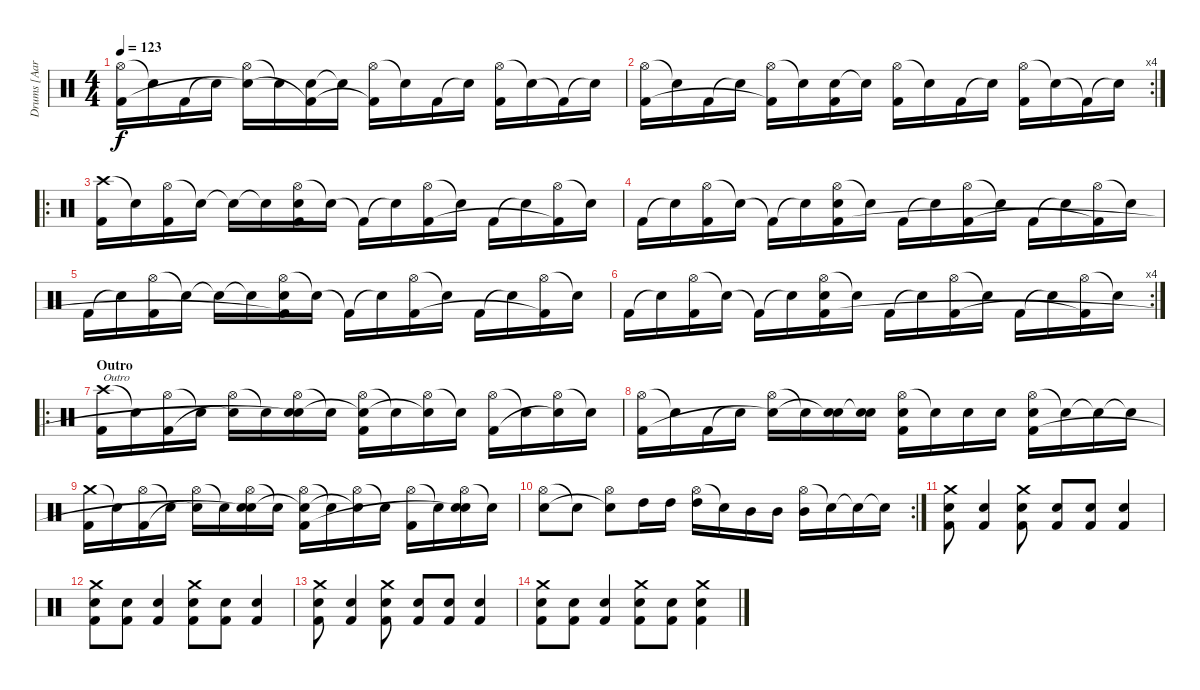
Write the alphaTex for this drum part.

\track ("Drums [Aaron Harris]" "Drums [Aar") {instrument percussion}
\staff {score}
\articulation defaults
\ts (4 4)
\tempo 123
\clef neutral
\ks c
("Hi-Hat (open)" "Kick (hit) 2").16{dy f} "Snare (hit)"{t}.16 "Kick (hit) 2".16 "Snare (hit)"{t}.16 ("Hi-Hat (open)" "Snare (hit)"{t}).16 "Snare (hit)"{t}.16 ("Electric Snare (hit)" "Kick (hit) 2"{t}).16 "Snare (hit)"{t}.16 ("Hi-Hat (open)" "Kick (hit) 2"{t}).16 "Snare (hit)"{t}.16 "Kick (hit) 2".16 "Snare (hit)"{t}.16 ("Hi-Hat (open)" "Kick (hit) 2").16 "Snare (hit)"{t}.16 "Kick (hit) 2"{t}.16 "Snare (hit)"{t}.16 |
\rc 4
("Hi-Hat (open)" "Kick (hit) 2").16 "Snare (hit)"{t}.16 "Kick (hit) 2".16 "Snare (hit)"{t}.16 ("Hi-Hat (open)" "Kick (hit) 2"{t}).16 "Snare (hit)"{t}.16 ("Electric Snare (hit)" "Kick (hit) 2").16 "Snare (hit)"{t}.16 ("Hi-Hat (open)" "Kick (hit) 2").16 "Snare (hit)"{t}.16 "Kick (hit) 2".16 "Snare (hit)"{t}.16 ("Hi-Hat (open)" "Kick (hit) 2").16 "Snare (hit)"{t}.16 "Kick (hit) 2"{t}.16 "Snare (hit)"{t}.16 |
\ro
("Crash high (hit)" "Kick (hit) 2").16 "Snare (hit)"{t}.16 ("Hi-Hat (open)" "Kick (hit) 2").16 "Snare (hit)"{t}.16 "Snare (hit)"{t}.16 "Snare (hit)"{t}.16 ("Hi-Hat (open)" "Electric Snare (hit)" "Kick (hit) 2").16 "Snare (hit)"{t}.16 "Kick (hit) 2"{t}.16 "Snare (hit)"{t}.16 ("Hi-Hat (open)" "Kick (hit) 2").16 "Snare (hit)"{t}.16 "Kick (hit) 2".16 "Snare (hit)"{t}.16 ("Hi-Hat (open)" "Kick (hit) 2"{t}).16 "Snare (hit)"{t}.16 |
"Kick (hit) 2".16 "Snare (hit)"{t}.16 ("Hi-Hat (open)" "Kick (hit) 2").16 "Snare (hit)"{t}.16 "Kick (hit) 2"{t}.16 "Snare (hit)"{t}.16 ("Hi-Hat (open)" "Electric Snare (hit)" "Kick (hit) 2").16 "Snare (hit)"{t}.16 "Kick (hit) 2".16 "Snare (hit)"{t}.16 ("Hi-Hat (open)" "Kick (hit) 2").16 "Snare (hit)"{t}.16 "Kick (hit) 2".16 "Snare (hit)"{t}.16 ("Hi-Hat (open)" "Kick (hit) 2"{t}).16 "Snare (hit)"{t}.16 |
"Kick (hit) 2".16 "Snare (hit)"{t}.16 ("Hi-Hat (open)" "Kick (hit) 2").16 "Snare (hit)"{t}.16 "Snare (hit)"{t}.16 "Snare (hit)"{t}.16 ("Hi-Hat (open)" "Electric Snare (hit)" "Kick (hit) 2"{t}).16 "Snare (hit)"{t}.16 "Kick (hit) 2"{t}.16 "Snare (hit)"{t}.16 ("Hi-Hat (open)" "Kick (hit) 2").16 "Snare (hit)"{t}.16 "Kick (hit) 2".16 "Snare (hit)"{t}.16 ("Hi-Hat (open)" "Kick (hit) 2"{t}).16 "Snare (hit)"{t}.16 |
\rc 4 "Kick (hit) 2".16 "Snare (hit)"{t}.16
("Hi-Hat (open)" "Kick (hit) 2").16 "Snare (hit)"{t}.16 "Kick (hit) 2"{t}.16 "Snare (hit)"{t}.16 ("Hi-Hat (open)" "Electric Snare (hit)" "Kick (hit) 2").16 "Snare (hit)"{t}.16 "Kick (hit) 2".16 "Snare (hit)"{t}.16 ("Hi-Hat (open)" "Kick (hit) 2").16 "Snare (hit)"{t}.16 "Kick (hit) 2".16 "Snare (hit)"{t}.16 ("Hi-Hat (open)" "Kick (hit) 2"{t}).16 "Snare (hit)"{t}.16 |
\ro
\section ("" "Outro")
("Crash high (hit)" "Kick (hit) 2").16{txt "Outro"} "Snare (hit)"{t}.16 ("Hi-Hat (open)" "Kick (hit) 2").16 "Snare (hit)"{t}.16 ("Hi-Hat (open)" "Snare (hit)"{t}).16 "Snare (hit)"{t}.16 ("Hi-Hat (open)" "Electric Snare (hit)" "Snare (hit)"{t}).16 "Snare (hit)"{t}.16 ("Hi-Hat (open)" "Electric Snare (hit)"{t} "Kick (hit) 2").16 "Snare (hit)"{t}.16 ("Hi-Hat (open)" "Snare (hit)"{t}).16 "Snare (hit)"{t}.16 ("Hi-Hat (open)" "Kick (hit) 2").16 "Snare (hit)"{t}.16 ("Hi-Hat (open)" "Snare (hit)"{t}).16 "Snare (hit)"{t}.16 |
("Hi-Hat (open)" "Kick (hit) 2").16 "Snare (hit)"{t}.16 "Kick (hit) 2".16 "Snare (hit)"{t}.16 ("Hi-Hat (open)" "Snare (hit)"{t}).16 "Snare (hit)"{t}.16 ("Electric Snare (hit)" "Snare (hit)"{t}).16 ("Electric Snare (hit)" "Snare (hit)"{t}).16 ("Hi-Hat (open)" "Electric Snare (hit)" "Kick (hit) 2").16 "Snare (hit)"{t}.16 "Electric Snare (hit)".16 "Electric Snare (hit)".16 ("Hi-Hat (open)" "Electric Snare (hit)" "Kick (hit) 2").16 "Snare (hit)"{t}.16 "Snare (hit)"{t}.16 "Snare (hit)"{t}.16 |
("Crash medium (hit)" "Kick (hit) 2").16 "Snare (hit)"{t}.16 ("Hi-Hat (open)" "Kick (hit) 2").16 "Snare (hit)"{t}.16 ("Hi-Hat (open)" "Snare (hit)"{t}).16 "Snare (hit)"{t}.16 ("Hi-Hat (open)" "Electric Snare (hit)" "Snare (hit)"{t}).16 "Snare (hit)"{t}.16 ("Hi-Hat (open)" "Electric Snare (hit)"{t} "Kick (hit) 2").16 "Snare (hit)"{t}.16 ("Hi-Hat (open)" "Snare (hit)"{t}).16 "Snare (hit)"{t}.16 ("Hi-Hat (open)" "Kick (hit) 2").16 "Snare (hit)"{t}.16 ("Hi-Hat (open)" "Electric Snare (hit)" "Snare (hit)"{t}).16 "Snare (hit)"{t}.16 |
\rc 2
("Hi-Hat (open)" "Electric Snare (hit)").8 "Snare (hit)"{t}.8 ("Hi-Hat (open)" "Snare (hit)"{t}).8 "High Tom (hit)".16 "High Tom (hit)".16 ("Hi-Hat (open)" "High Tom (hit)").16 "Snare (hit)"{t}.16 "Mid Tom (hit)".16 "Mid Tom (hit)".16 ("Hi-Hat (open)" "Mid Tom (hit)").16 "Snare (hit)"{t}.16 "Snare (hit)"{t}.16 "Snare (hit)"{t}.16 |
("Crash medium (hit)" "Electric Snare (hit)" "Kick (hit) 2").8 ("Electric Snare (hit)" "Kick (hit) 2").4 ("Crash medium (hit)" "Electric Snare (hit)" "Kick (hit) 2").8 ("Electric Snare (hit)" "Kick (hit) 2").8 ("Electric Snare (hit)" "Kick (hit) 2").8 ("Electric Snare (hit)" "Kick (hit) 2").4 |
("Crash medium (hit)" "Electric Snare (hit)" "Kick (hit) 2").8 ("Electric Snare (hit)" "Kick (hit) 2").8 ("Electric Snare (hit)" "Kick (hit) 2").4 ("Crash medium (hit)" "Electric Snare (hit)" "Kick (hit) 2").8 ("Electric Snare (hit)" "Kick (hit) 2").8 ("Electric Snare (hit)" "Kick (hit) 2").4 |
("Crash medium (hit)" "Electric Snare (hit)" "Kick (hit) 2").8 ("Electric Snare (hit)" "Kick (hit) 2").4 ("Crash medium (hit)" "Electric Snare (hit)" "Kick (hit) 2").8 ("Electric Snare (hit)" "Kick (hit) 2").8 ("Electric Snare (hit)" "Kick (hit) 2").8 ("Electric Snare (hit)" "Kick (hit) 2").4 |
("Crash medium (hit)" "Electric Snare (hit)" "Kick (hit) 2").8 ("Electric Snare (hit)" "Kick (hit) 2").8 ("Electric Snare (hit)" "Kick (hit) 2").4 ("Crash medium (hit)" "Electric Snare (hit)" "Kick (hit) 2").8 ("Electric Snare (hit)" "Kick (hit) 2").8 ("Crash medium (hit)" "Electric Snare (hit)" "Kick (hit) 2").4
